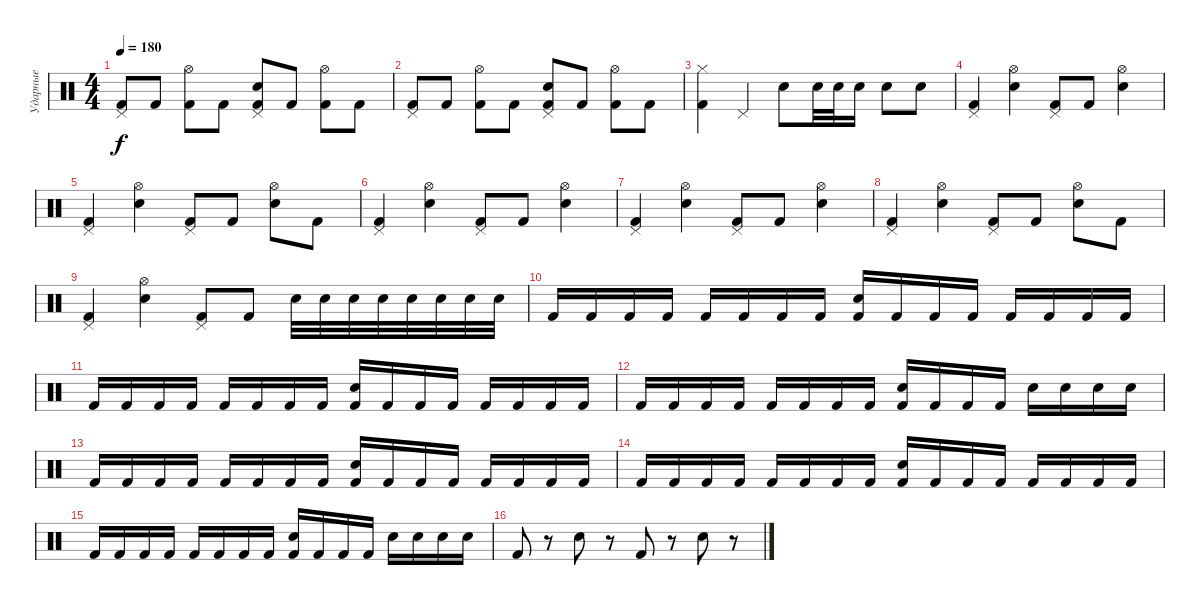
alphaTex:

\track ("Ударные" "Ударные") {instrument percussion}
\staff {score}
\articulation defaults
\ts (4 4)
\tempo 180
\clef neutral
\ks c
("Kick (hit) 2" "Pedal Hi-Hat (hit)").8{dy f} "Kick (hit) 2".8 ("Kick (hit) 2" "Hi-Hat (open)").8 "Kick (hit) 2".8 ("Kick (hit) 2" "Electric Snare (hit)" "Pedal Hi-Hat (hit)").8 "Kick (hit) 2".8 ("Kick (hit) 2" "Hi-Hat (open)").8 "Kick (hit) 2".8 |
("Kick (hit) 2" "Pedal Hi-Hat (hit)").8 "Kick (hit) 2".8 ("Kick (hit) 2" "Hi-Hat (open)").8 "Kick (hit) 2".8 ("Kick (hit) 2" "Electric Snare (hit)" "Pedal Hi-Hat (hit)").8 "Kick (hit) 2".8 ("Kick (hit) 2" "Hi-Hat (open)").8 "Kick (hit) 2".8 |
("Hi-Hat (closed)" "Kick (hit) 2").4 "Pedal Hi-Hat (hit)".4 "Electric Snare (hit)".8 "Electric Snare (hit)".32 "Electric Snare (hit)".32 "Electric Snare (hit)".16 "Electric Snare (hit)".8 "Electric Snare (hit)".8 |
("Kick (hit) 2" "Pedal Hi-Hat (hit)").4 ("Electric Snare (hit)" "Hi-Hat (open)").4 ("Kick (hit) 2" "Pedal Hi-Hat (hit)").8 "Kick (hit) 2".8 ("Electric Snare (hit)" "Hi-Hat (open)").4 |
("Kick (hit) 2" "Pedal Hi-Hat (hit)").4 ("Electric Snare (hit)" "Hi-Hat (open)").4 ("Kick (hit) 2" "Pedal Hi-Hat (hit)").8 "Kick (hit) 2".8 ("Electric Snare (hit)" "Hi-Hat (open)").8 "Kick (hit) 2".8 |
("Kick (hit) 2" "Pedal Hi-Hat (hit)").4 ("Electric Snare (hit)" "Hi-Hat (open)").4 ("Kick (hit) 2" "Pedal Hi-Hat (hit)").8 "Kick (hit) 2".8 ("Electric Snare (hit)" "Hi-Hat (open)").4 |
("Kick (hit) 2" "Pedal Hi-Hat (hit)").4 ("Electric Snare (hit)" "Hi-Hat (open)").4 ("Kick (hit) 2" "Pedal Hi-Hat (hit)").8 "Kick (hit) 2".8 ("Electric Snare (hit)" "Hi-Hat (open)").4 |
("Kick (hit) 2" "Pedal Hi-Hat (hit)").4 ("Electric Snare (hit)" "Hi-Hat (open)").4 ("Kick (hit) 2" "Pedal Hi-Hat (hit)").8 "Kick (hit) 2".8 ("Electric Snare (hit)" "Hi-Hat (open)").8 "Kick (hit) 2".8 |
("Kick (hit) 2" "Pedal Hi-Hat (hit)").4 ("Electric Snare (hit)" "Hi-Hat (open)").4 ("Kick (hit) 2" "Pedal Hi-Hat (hit)").8 "Kick (hit) 2".8 "Electric Snare (hit)".32 "Electric Snare (hit)".32 "Electric Snare (hit)".32 "Electric Snare (hit)".32 "Electric Snare (hit)".32 "Electric Snare (hit)".32 "Electric Snare (hit)".32 "Electric Snare (hit)".32 |
"Kick (hit) 2".16 "Kick (hit) 2".16 "Kick (hit) 2".16 "Kick (hit) 2".16 "Kick (hit) 2".16 "Kick (hit) 2".16 "Kick (hit) 2".16 "Kick (hit) 2".16 ("Kick (hit) 2" "Electric Snare (hit)").16 "Kick (hit) 2".16 "Kick (hit) 2".16 "Kick (hit) 2".16 "Kick (hit) 2".16 "Kick (hit) 2".16 "Kick (hit) 2".16 "Kick (hit) 2".16 |
"Kick (hit) 2".16 "Kick (hit) 2".16 "Kick (hit) 2".16 "Kick (hit) 2".16 "Kick (hit) 2".16 "Kick (hit) 2".16 "Kick (hit) 2".16 "Kick (hit) 2".16 ("Kick (hit) 2" "Electric Snare (hit)").16 "Kick (hit) 2".16 "Kick (hit) 2".16 "Kick (hit) 2".16 "Kick (hit) 2".16 "Kick (hit) 2".16 "Kick (hit) 2".16 "Kick (hit) 2".16 |
"Kick (hit) 2".16 "Kick (hit) 2".16 "Kick (hit) 2".16 "Kick (hit) 2".16 "Kick (hit) 2".16 "Kick (hit) 2".16 "Kick (hit) 2".16 "Kick (hit) 2".16 ("Kick (hit) 2" "Electric Snare (hit)").16 "Kick (hit) 2".16 "Kick (hit) 2".16 "Kick (hit) 2".16 "Electric Snare (hit)".16 "Electric Snare (hit)".16 "Electric Snare (hit)".16 "Electric Snare (hit)".16 |
"Kick (hit) 2".16 "Kick (hit) 2".16 "Kick (hit) 2".16 "Kick (hit) 2".16 "Kick (hit) 2".16 "Kick (hit) 2".16 "Kick (hit) 2".16 "Kick (hit) 2".16 ("Kick (hit) 2" "Electric Snare (hit)").16 "Kick (hit) 2".16 "Kick (hit) 2".16 "Kick (hit) 2".16 "Kick (hit) 2".16 "Kick (hit) 2".16 "Kick (hit) 2".16 "Kick (hit) 2".16 |
"Kick (hit) 2".16 "Kick (hit) 2".16 "Kick (hit) 2".16 "Kick (hit) 2".16 "Kick (hit) 2".16 "Kick (hit) 2".16 "Kick (hit) 2".16 "Kick (hit) 2".16 ("Kick (hit) 2" "Electric Snare (hit)").16 "Kick (hit) 2".16 "Kick (hit) 2".16 "Kick (hit) 2".16 "Kick (hit) 2".16 "Kick (hit) 2".16 "Kick (hit) 2".16 "Kick (hit) 2".16 |
"Kick (hit) 2".16 "Kick (hit) 2".16 "Kick (hit) 2".16 "Kick (hit) 2".16 "Kick (hit) 2".16 "Kick (hit) 2".16 "Kick (hit) 2".16 "Kick (hit) 2".16 ("Kick (hit) 2" "Electric Snare (hit)").16 "Kick (hit) 2".16 "Kick (hit) 2".16 "Kick (hit) 2".16 "Electric Snare (hit)".16 "Electric Snare (hit)".16 "Electric Snare (hit)".16 "Electric Snare (hit)".16 |
"Kick (hit) 2".8 r.8 "Electric Snare (hit)".8 r.8 "Kick (hit) 2".8 r.8 "Electric Snare (hit)".8 r.8
